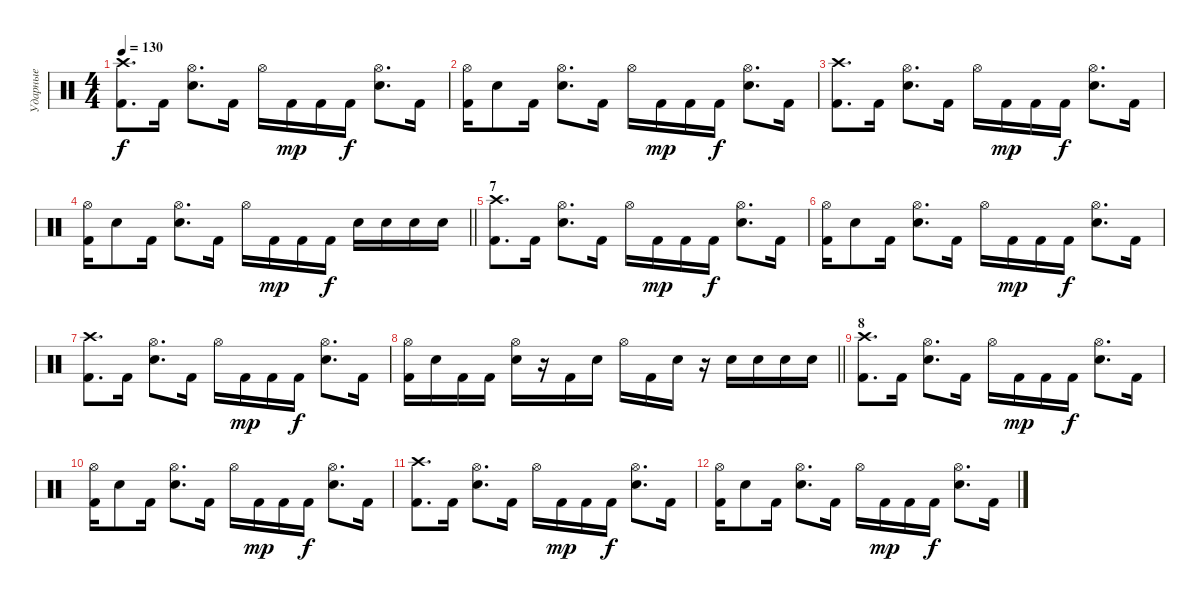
\track ("Ударные" "Ударные") {instrument percussion}
\staff {score}
\articulation defaults
\ts (4 4)
\tempo 130
\clef neutral
\ks c
("Kick (hit) 2" "Crash high (hit)").8{d dy f} "Kick (hit) 2".16 ("Electric Snare (hit)" "Hi-Hat (open)").8{d} "Kick (hit) 2".16 "Hi-Hat (open)".16 "Kick (hit) 2".16{dy mp} "Kick (hit) 2".16 "Kick (hit) 2".16{dy f} ("Electric Snare (hit)" "Hi-Hat (open)").8{d} "Kick (hit) 2".16 |
("Kick (hit) 2" "Hi-Hat (open)").16 "Electric Snare (hit)".8 "Kick (hit) 2".16 ("Electric Snare (hit)" "Hi-Hat (open)").8{d} "Kick (hit) 2".16 "Hi-Hat (open)".16 "Kick (hit) 2".16{dy mp} "Kick (hit) 2".16 "Kick (hit) 2".16{dy f} ("Electric Snare (hit)" "Hi-Hat (open)").8{d} "Kick (hit) 2".16 |
("Kick (hit) 2" "Crash high (hit)").8{d} "Kick (hit) 2".16 ("Electric Snare (hit)" "Hi-Hat (open)").8{d} "Kick (hit) 2".16 "Hi-Hat (open)".16 "Kick (hit) 2".16{dy mp} "Kick (hit) 2".16 "Kick (hit) 2".16{dy f} ("Electric Snare (hit)" "Hi-Hat (open)").8{d} "Kick (hit) 2".16 |
\barLineRight lightlight
("Kick (hit) 2" "Hi-Hat (open)").16 "Electric Snare (hit)".8 "Kick (hit) 2".16 ("Electric Snare (hit)" "Hi-Hat (open)").8{d} "Kick (hit) 2".16 "Hi-Hat (open)".16 "Kick (hit) 2".16{dy mp} "Kick (hit) 2".16 "Kick (hit) 2".16{dy f} "Electric Snare (hit)".16 "Electric Snare (hit)".16 "Electric Snare (hit)".16 "Electric Snare (hit)".16 |
\section ("" "7")
("Kick (hit) 2" "Crash high (hit)").8{d} "Kick (hit) 2".16 ("Electric Snare (hit)" "Hi-Hat (open)").8{d} "Kick (hit) 2".16 "Hi-Hat (open)".16 "Kick (hit) 2".16{dy mp} "Kick (hit) 2".16 "Kick (hit) 2".16{dy f} ("Electric Snare (hit)" "Hi-Hat (open)").8{d} "Kick (hit) 2".16 |
("Kick (hit) 2" "Hi-Hat (open)").16 "Electric Snare (hit)".8 "Kick (hit) 2".16 ("Electric Snare (hit)" "Hi-Hat (open)").8{d} "Kick (hit) 2".16 "Hi-Hat (open)".16 "Kick (hit) 2".16{dy mp} "Kick (hit) 2".16 "Kick (hit) 2".16{dy f} ("Electric Snare (hit)" "Hi-Hat (open)").8{d} "Kick (hit) 2".16 |
("Kick (hit) 2" "Crash high (hit)").8{d} "Kick (hit) 2".16 ("Electric Snare (hit)" "Hi-Hat (open)").8{d} "Kick (hit) 2".16 "Hi-Hat (open)".16 "Kick (hit) 2".16{dy mp} "Kick (hit) 2".16 "Kick (hit) 2".16{dy f} ("Electric Snare (hit)" "Hi-Hat (open)").8{d} "Kick (hit) 2".16 |
\barLineRight lightlight
("Kick (hit) 2" "Hi-Hat (open)").16 "Electric Snare (hit)".16 "Kick (hit) 2".16 "Kick (hit) 2".16 ("Electric Snare (hit)" "Hi-Hat (open)").16 r.16 "Kick (hit) 2".16 "Electric Snare (hit)".16 "Hi-Hat (open)".16 "Kick (hit) 2".16 "Electric Snare (hit)".16 r.16 "Electric Snare (hit)".16 "Electric Snare (hit)".16 "Electric Snare (hit)".16 "Electric Snare (hit)".16 |
\section ("" "8")
("Kick (hit) 2" "Crash high (hit)").8{d} "Kick (hit) 2".16 ("Electric Snare (hit)" "Hi-Hat (open)").8{d} "Kick (hit) 2".16 "Hi-Hat (open)".16 "Kick (hit) 2".16{dy mp} "Kick (hit) 2".16 "Kick (hit) 2".16{dy f} ("Electric Snare (hit)" "Hi-Hat (open)").8{d} "Kick (hit) 2".16 |
("Kick (hit) 2" "Hi-Hat (open)").16 "Electric Snare (hit)".8 "Kick (hit) 2".16 ("Electric Snare (hit)" "Hi-Hat (open)").8{d} "Kick (hit) 2".16 "Hi-Hat (open)".16 "Kick (hit) 2".16{dy mp} "Kick (hit) 2".16 "Kick (hit) 2".16{dy f} ("Electric Snare (hit)" "Hi-Hat (open)").8{d} "Kick (hit) 2".16 |
("Kick (hit) 2" "Crash high (hit)").8{d} "Kick (hit) 2".16 ("Electric Snare (hit)" "Hi-Hat (open)").8{d} "Kick (hit) 2".16 "Hi-Hat (open)".16 "Kick (hit) 2".16{dy mp} "Kick (hit) 2".16 "Kick (hit) 2".16{dy f} ("Electric Snare (hit)" "Hi-Hat (open)").8{d} "Kick (hit) 2".16 |
("Kick (hit) 2" "Hi-Hat (open)").16 "Electric Snare (hit)".8 "Kick (hit) 2".16 ("Electric Snare (hit)" "Hi-Hat (open)").8{d} "Kick (hit) 2".16 "Hi-Hat (open)".16 "Kick (hit) 2".16{dy mp} "Kick (hit) 2".16 "Kick (hit) 2".16{dy f} ("Electric Snare (hit)" "Hi-Hat (open)").8{d} "Kick (hit) 2".16
